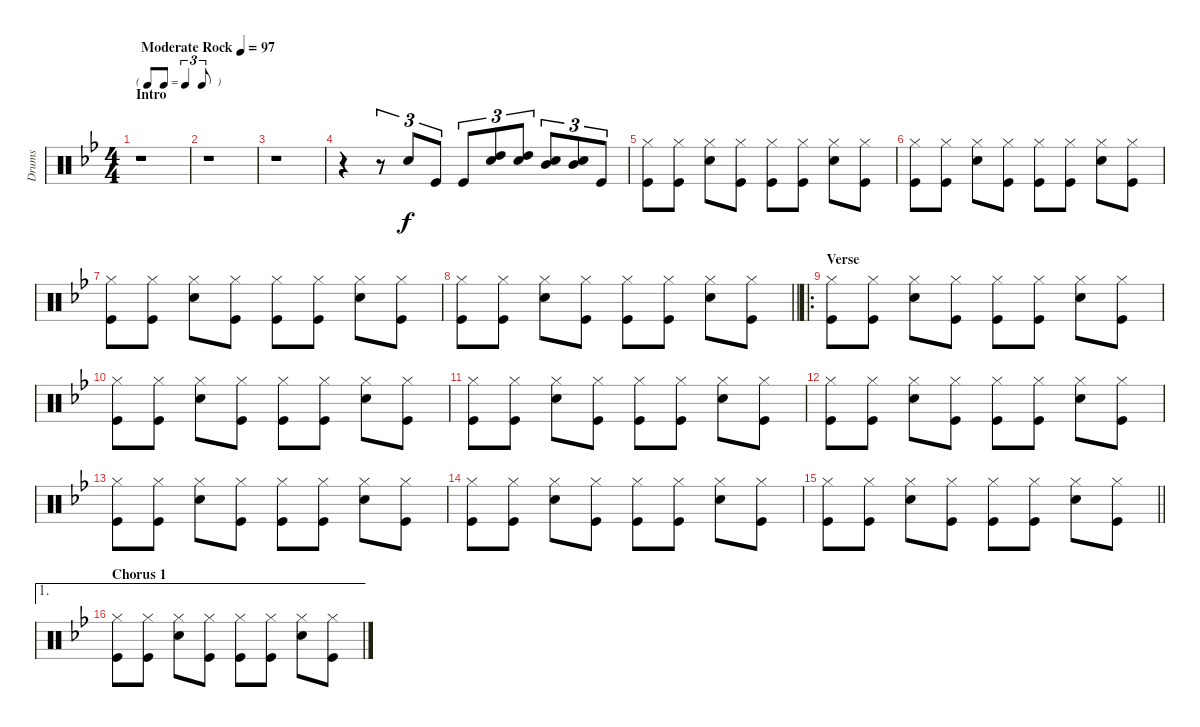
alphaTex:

\track ("Drums" "Drums") {instrument percussion}
\staff {score}
\articulation defaults
\ts (4 4)
\tf triplet8th
\section ("" "Intro")
\tempo (97 "Moderate Rock")
\clef neutral
\ks bb
r.1{dy f} |
r.1 |
r.1 |
r.4 r.8{tu (3 2)} "Snare (hit) 2".8{tu (3 2)} "Kick (hit)".8{tu (3 2)} "Kick (hit)".8{tu (3 2)} ("Snare (hit) 2" "High Tom (hit)").8{tu (3 2)} ("Snare (hit) 2" "High Tom (hit)").8{tu (3 2)} ("Snare (hit) 2" "Mid Tom (hit)").8{tu (3 2)} ("Snare (hit) 2" "Mid Tom (hit)").8{tu (3 2)} "Kick (hit)".8{tu (3 2)} |
("Kick (hit)" "Hi-Hat (closed)").8 ("Kick (hit)" "Hi-Hat (closed)").8 ("Snare (hit) 2" "Hi-Hat (closed)").8 ("Kick (hit)" "Hi-Hat (closed)").8 ("Kick (hit)" "Hi-Hat (closed)").8 ("Kick (hit)" "Hi-Hat (closed)").8 ("Snare (hit) 2" "Hi-Hat (closed)").8 ("Kick (hit)" "Hi-Hat (closed)").8 |
("Kick (hit)" "Hi-Hat (closed)").8 ("Kick (hit)" "Hi-Hat (closed)").8 ("Snare (hit) 2" "Hi-Hat (closed)").8 ("Kick (hit)" "Hi-Hat (closed)").8 ("Kick (hit)" "Hi-Hat (closed)").8 ("Kick (hit)" "Hi-Hat (closed)").8 ("Snare (hit) 2" "Hi-Hat (closed)").8 ("Kick (hit)" "Hi-Hat (closed)").8 |
("Kick (hit)" "Hi-Hat (closed)").8 ("Kick (hit)" "Hi-Hat (closed)").8 ("Snare (hit) 2" "Hi-Hat (closed)").8 ("Kick (hit)" "Hi-Hat (closed)").8 ("Kick (hit)" "Hi-Hat (closed)").8 ("Kick (hit)" "Hi-Hat (closed)").8 ("Snare (hit) 2" "Hi-Hat (closed)").8 ("Kick (hit)" "Hi-Hat (closed)").8 |
\barLineRight lightlight
("Kick (hit)" "Hi-Hat (closed)").8 ("Kick (hit)" "Hi-Hat (closed)").8 ("Snare (hit) 2" "Hi-Hat (closed)").8 ("Kick (hit)" "Hi-Hat (closed)").8 ("Kick (hit)" "Hi-Hat (closed)").8 ("Kick (hit)" "Hi-Hat (closed)").8 ("Snare (hit) 2" "Hi-Hat (closed)").8 ("Kick (hit)" "Hi-Hat (closed)").8 |
\ro
\section ("" "Verse")
("Kick (hit)" "Hi-Hat (closed)").8{volume 11} ("Kick (hit)" "Hi-Hat (closed)").8 ("Snare (hit) 2" "Hi-Hat (closed)").8 ("Kick (hit)" "Hi-Hat (closed)").8 ("Kick (hit)" "Hi-Hat (closed)").8 ("Kick (hit)" "Hi-Hat (closed)").8 ("Snare (hit) 2" "Hi-Hat (closed)").8 ("Kick (hit)" "Hi-Hat (closed)").8 |
("Kick (hit)" "Hi-Hat (closed)").8 ("Kick (hit)" "Hi-Hat (closed)").8 ("Snare (hit) 2" "Hi-Hat (closed)").8 ("Kick (hit)" "Hi-Hat (closed)").8 ("Kick (hit)" "Hi-Hat (closed)").8 ("Kick (hit)" "Hi-Hat (closed)").8 ("Snare (hit) 2" "Hi-Hat (closed)").8 ("Kick (hit)" "Hi-Hat (closed)").8 |
("Kick (hit)" "Hi-Hat (closed)").8 ("Kick (hit)" "Hi-Hat (closed)").8 ("Snare (hit) 2" "Hi-Hat (closed)").8 ("Kick (hit)" "Hi-Hat (closed)").8 ("Kick (hit)" "Hi-Hat (closed)").8 ("Kick (hit)" "Hi-Hat (closed)").8 ("Snare (hit) 2" "Hi-Hat (closed)").8 ("Kick (hit)" "Hi-Hat (closed)").8 |
("Kick (hit)" "Hi-Hat (closed)").8 ("Kick (hit)" "Hi-Hat (closed)").8 ("Snare (hit) 2" "Hi-Hat (closed)").8 ("Kick (hit)" "Hi-Hat (closed)").8 ("Kick (hit)" "Hi-Hat (closed)").8 ("Kick (hit)" "Hi-Hat (closed)").8 ("Snare (hit) 2" "Hi-Hat (closed)").8 ("Kick (hit)" "Hi-Hat (closed)").8 |
("Kick (hit)" "Hi-Hat (closed)").8 ("Kick (hit)" "Hi-Hat (closed)").8 ("Snare (hit) 2" "Hi-Hat (closed)").8 ("Kick (hit)" "Hi-Hat (closed)").8 ("Kick (hit)" "Hi-Hat (closed)").8 ("Kick (hit)" "Hi-Hat (closed)").8 ("Snare (hit) 2" "Hi-Hat (closed)").8 ("Kick (hit)" "Hi-Hat (closed)").8 |
("Kick (hit)" "Hi-Hat (closed)").8 ("Kick (hit)" "Hi-Hat (closed)").8 ("Snare (hit) 2" "Hi-Hat (closed)").8 ("Kick (hit)" "Hi-Hat (closed)").8 ("Kick (hit)" "Hi-Hat (closed)").8 ("Kick (hit)" "Hi-Hat (closed)").8 ("Snare (hit) 2" "Hi-Hat (closed)").8 ("Kick (hit)" "Hi-Hat (closed)").8 |
\barLineRight lightlight
("Kick (hit)" "Hi-Hat (closed)").8 ("Kick (hit)" "Hi-Hat (closed)").8 ("Snare (hit) 2" "Hi-Hat (closed)").8 ("Kick (hit)" "Hi-Hat (closed)").8 ("Kick (hit)" "Hi-Hat (closed)").8 ("Kick (hit)" "Hi-Hat (closed)").8 ("Snare (hit) 2" "Hi-Hat (closed)").8 ("Kick (hit)" "Hi-Hat (closed)").8 |
\ae 1
\section ("" "Chorus 1")
("Kick (hit)" "Hi-Hat (closed)").8 ("Kick (hit)" "Hi-Hat (closed)").8 ("Snare (hit) 2" "Hi-Hat (closed)").8 ("Kick (hit)" "Hi-Hat (closed)").8 ("Kick (hit)" "Hi-Hat (closed)").8 ("Kick (hit)" "Hi-Hat (closed)").8 ("Snare (hit) 2" "Hi-Hat (closed)").8 ("Kick (hit)" "Hi-Hat (closed)").8
